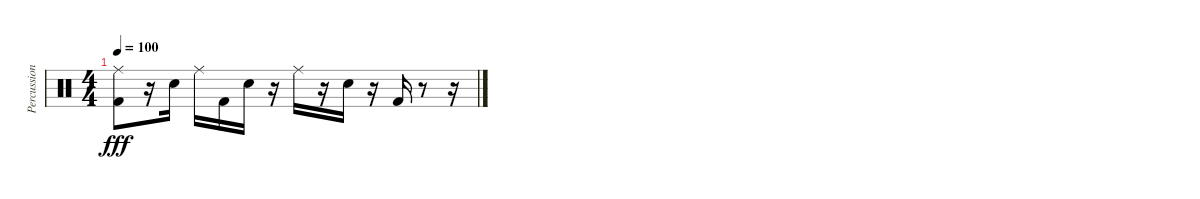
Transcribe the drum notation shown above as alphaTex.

\track ("Percussion" "Percussion") {instrument percussion}
\staff {score}
\articulation defaults
\ts (4 4)
\tempo 100
\clef neutral
\ks c
("Ride (middle)" "Kick (hit) 2").8{dy fff} r.16 "Snare (hit) 2".16 "Ride (middle)".16 "Kick (hit) 2".16 "Snare (hit) 2".16 r.16 "Ride (middle)".16 r.16 "Snare (hit) 2".16 r.16 "Kick (hit) 2".16 r.8 r.16
